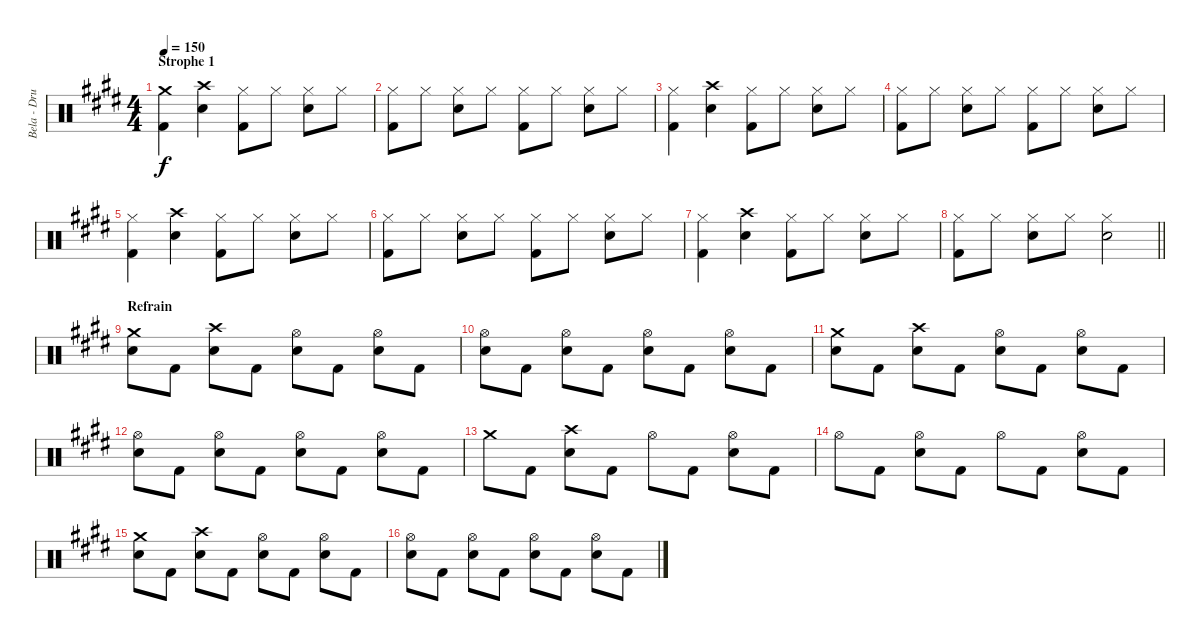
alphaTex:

\track ("Bela - Drums" "Bela - Dru") {instrument percussion}
\staff {score}
\articulation defaults
\ts (4 4)
\section ("" "Strophe 1")
\tempo 150
\clef neutral
\ks e
("Crash medium (hit)" "Kick (hit) 2").4{dy f} ("Crash high (hit)" "Electric Snare (hit)").4 ("Hi-Hat (closed)" "Kick (hit) 2").8 "Hi-Hat (closed)".8 ("Hi-Hat (closed)" "Electric Snare (hit)").8 "Hi-Hat (closed)".8 |
("Hi-Hat (closed)" "Kick (hit) 2").8 "Hi-Hat (closed)".8 ("Hi-Hat (closed)" "Electric Snare (hit)").8 "Hi-Hat (closed)".8 ("Hi-Hat (closed)" "Kick (hit) 2").8 "Hi-Hat (closed)".8 ("Hi-Hat (closed)" "Electric Snare (hit)").8 "Hi-Hat (closed)".8 |
("Hi-Hat (closed)" "Kick (hit) 2").4 ("Crash high (hit)" "Electric Snare (hit)").4 ("Hi-Hat (closed)" "Kick (hit) 2").8 "Hi-Hat (closed)".8 ("Hi-Hat (closed)" "Electric Snare (hit)").8 "Hi-Hat (closed)".8 |
("Hi-Hat (closed)" "Kick (hit) 2").8 "Hi-Hat (closed)".8 ("Hi-Hat (closed)" "Electric Snare (hit)").8 "Hi-Hat (closed)".8 ("Hi-Hat (closed)" "Kick (hit) 2").8 "Hi-Hat (closed)".8 ("Hi-Hat (closed)" "Electric Snare (hit)").8 "Hi-Hat (closed)".8 |
("Hi-Hat (closed)" "Kick (hit) 2").4 ("Crash high (hit)" "Electric Snare (hit)").4 ("Hi-Hat (closed)" "Kick (hit) 2").8 "Hi-Hat (closed)".8 ("Hi-Hat (closed)" "Electric Snare (hit)").8 "Hi-Hat (closed)".8 |
("Hi-Hat (closed)" "Kick (hit) 2").8 "Hi-Hat (closed)".8 ("Hi-Hat (closed)" "Electric Snare (hit)").8 "Hi-Hat (closed)".8 ("Hi-Hat (closed)" "Kick (hit) 2").8 "Hi-Hat (closed)".8 ("Hi-Hat (closed)" "Electric Snare (hit)").8 "Hi-Hat (closed)".8 |
("Hi-Hat (closed)" "Kick (hit) 2").4 ("Crash high (hit)" "Electric Snare (hit)").4 ("Hi-Hat (closed)" "Kick (hit) 2").8 "Hi-Hat (closed)".8 ("Hi-Hat (closed)" "Electric Snare (hit)").8 "Hi-Hat (closed)".8 |
\barLineRight lightlight
("Hi-Hat (closed)" "Kick (hit) 2").8 "Hi-Hat (closed)".8 ("Hi-Hat (closed)" "Electric Snare (hit)").8 "Hi-Hat (closed)".8 ("Hi-Hat (closed)" "Electric Snare (hit)").2 |
\section ("" "Refrain")
("Crash medium (hit)" "Electric Snare (hit)").8 "Kick (hit) 2".8 ("Crash high (hit)" "Electric Snare (hit)").8 "Kick (hit) 2".8 ("Hi-Hat (open)" "Electric Snare (hit)").8 "Kick (hit) 2".8 ("Hi-Hat (open)" "Electric Snare (hit)").8 "Kick (hit) 2".8 |
("Hi-Hat (open)" "Electric Snare (hit)").8 "Kick (hit) 2".8 ("Hi-Hat (open)" "Electric Snare (hit)").8 "Kick (hit) 2".8 ("Hi-Hat (open)" "Electric Snare (hit)").8 "Kick (hit) 2".8 ("Hi-Hat (open)" "Electric Snare (hit)").8 "Kick (hit) 2".8 |
("Crash medium (hit)" "Electric Snare (hit)").8 "Kick (hit) 2".8 ("Crash high (hit)" "Electric Snare (hit)").8 "Kick (hit) 2".8 ("Hi-Hat (open)" "Electric Snare (hit)").8 "Kick (hit) 2".8 ("Hi-Hat (open)" "Electric Snare (hit)").8 "Kick (hit) 2".8 |
("Hi-Hat (open)" "Electric Snare (hit)").8 "Kick (hit) 2".8 ("Hi-Hat (open)" "Electric Snare (hit)").8 "Kick (hit) 2".8 ("Hi-Hat (open)" "Electric Snare (hit)").8 "Kick (hit) 2".8 ("Hi-Hat (open)" "Electric Snare (hit)").8 "Kick (hit) 2".8 |
"Crash medium (hit)".8 "Kick (hit) 2".8 ("Crash high (hit)" "Electric Snare (hit)").8 "Kick (hit) 2".8 "Hi-Hat (open)".8 "Kick (hit) 2".8 ("Hi-Hat (open)" "Electric Snare (hit)").8 "Kick (hit) 2".8 |
"Hi-Hat (open)".8 "Kick (hit) 2".8 ("Hi-Hat (open)" "Electric Snare (hit)").8 "Kick (hit) 2".8 "Hi-Hat (open)".8 "Kick (hit) 2".8 ("Hi-Hat (open)" "Electric Snare (hit)").8 "Kick (hit) 2".8 |
("Crash medium (hit)" "Electric Snare (hit)").8 "Kick (hit) 2".8 ("Crash high (hit)" "Electric Snare (hit)").8 "Kick (hit) 2".8 ("Hi-Hat (open)" "Electric Snare (hit)").8 "Kick (hit) 2".8 ("Hi-Hat (open)" "Electric Snare (hit)").8 "Kick (hit) 2".8 |
("Hi-Hat (open)" "Electric Snare (hit)").8 "Kick (hit) 2".8 ("Hi-Hat (open)" "Electric Snare (hit)").8 "Kick (hit) 2".8 ("Hi-Hat (open)" "Electric Snare (hit)").8 "Kick (hit) 2".8 ("Hi-Hat (open)" "Electric Snare (hit)").8 "Kick (hit) 2".8
